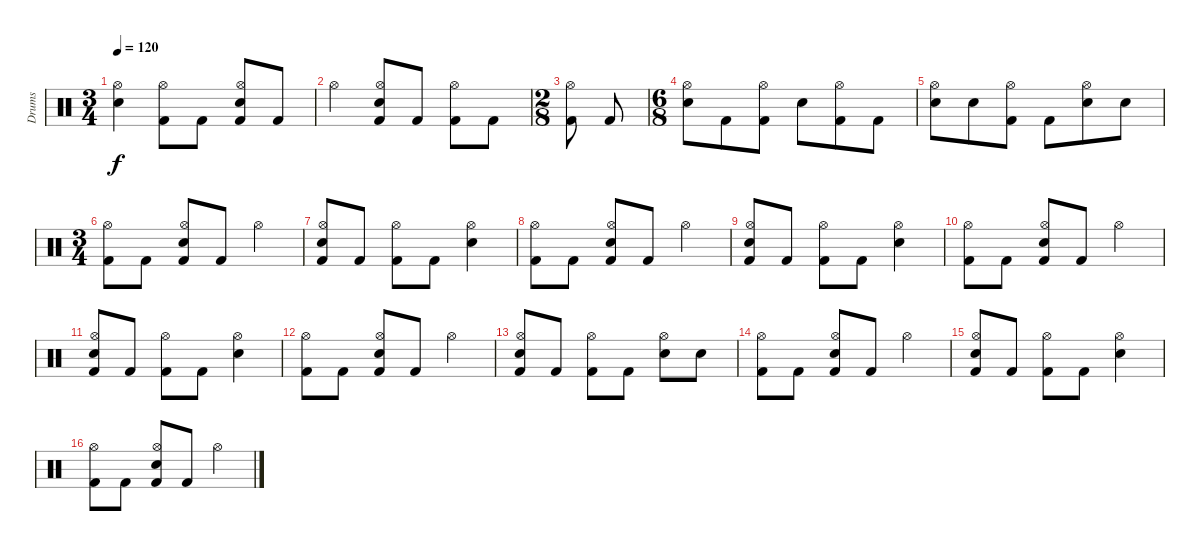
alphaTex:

\track ("Drums" "Drums") {instrument percussion}
\staff {score}
\articulation defaults
\ts (3 4)
\tempo 120
\clef neutral
\ks c
("Electric Snare (hit)" "Hi-Hat (open)").4{dy f} ("Hi-Hat (open)" "Kick (hit) 2").8 "Kick (hit) 2".8 ("Electric Snare (hit)" "Hi-Hat (open)" "Kick (hit) 2").8 "Kick (hit) 2".8 |
"Hi-Hat (open)".4 ("Electric Snare (hit)" "Hi-Hat (open)" "Kick (hit) 2").8 "Kick (hit) 2".8 ("Hi-Hat (open)" "Kick (hit) 2").8 "Kick (hit) 2".8 |
\ts (2 8)
("Hi-Hat (open)" "Kick (hit) 2").8 "Kick (hit) 2".8 |
\ts (6 8)
("Electric Snare (hit)" "Hi-Hat (open)").8 "Kick (hit) 2".8 ("Hi-Hat (open)" "Kick (hit) 2").8 "Electric Snare (hit)".8 ("Hi-Hat (open)" "Kick (hit) 2").8 "Kick (hit) 2".8 |
("Electric Snare (hit)" "Hi-Hat (open)").8 "Electric Snare (hit)".8 ("Hi-Hat (open)" "Kick (hit) 2").8 "Kick (hit) 2".8 ("Electric Snare (hit)" "Hi-Hat (open)").8 "Electric Snare (hit)".8 |
\ts (3 4)
("Hi-Hat (open)" "Kick (hit) 2").8 "Kick (hit) 2".8 ("Electric Snare (hit)" "Hi-Hat (open)" "Kick (hit) 2").8 "Kick (hit) 2".8 "Hi-Hat (open)".4 |
("Electric Snare (hit)" "Hi-Hat (open)" "Kick (hit) 2").8 "Kick (hit) 2".8 ("Hi-Hat (open)" "Kick (hit) 2").8 "Kick (hit) 2".8 ("Electric Snare (hit)" "Hi-Hat (open)").4 |
("Hi-Hat (open)" "Kick (hit) 2").8 "Kick (hit) 2".8 ("Electric Snare (hit)" "Hi-Hat (open)" "Kick (hit) 2").8 "Kick (hit) 2".8 "Hi-Hat (open)".4 |
("Electric Snare (hit)" "Hi-Hat (open)" "Kick (hit) 2").8 "Kick (hit) 2".8 ("Hi-Hat (open)" "Kick (hit) 2").8 "Kick (hit) 2".8 ("Electric Snare (hit)" "Hi-Hat (open)").4 |
("Hi-Hat (open)" "Kick (hit) 2").8 "Kick (hit) 2".8 ("Electric Snare (hit)" "Hi-Hat (open)" "Kick (hit) 2").8 "Kick (hit) 2".8 "Hi-Hat (open)".4 |
("Electric Snare (hit)" "Hi-Hat (open)" "Kick (hit) 2").8 "Kick (hit) 2".8 ("Hi-Hat (open)" "Kick (hit) 2").8 "Kick (hit) 2".8 ("Electric Snare (hit)" "Hi-Hat (open)").4 |
("Hi-Hat (open)" "Kick (hit) 2").8 "Kick (hit) 2".8 ("Electric Snare (hit)" "Hi-Hat (open)" "Kick (hit) 2").8 "Kick (hit) 2".8 "Hi-Hat (open)".4 |
("Electric Snare (hit)" "Hi-Hat (open)" "Kick (hit) 2").8 "Kick (hit) 2".8 ("Hi-Hat (open)" "Kick (hit) 2").8 "Kick (hit) 2".8 ("Electric Snare (hit)" "Hi-Hat (open)").8 "Electric Snare (hit)".8 |
("Hi-Hat (open)" "Kick (hit) 2").8 "Kick (hit) 2".8 ("Electric Snare (hit)" "Hi-Hat (open)" "Kick (hit) 2").8 "Kick (hit) 2".8 "Hi-Hat (open)".4 |
("Electric Snare (hit)" "Hi-Hat (open)" "Kick (hit) 2").8 "Kick (hit) 2".8 ("Hi-Hat (open)" "Kick (hit) 2").8 "Kick (hit) 2".8 ("Electric Snare (hit)" "Hi-Hat (open)").4 |
("Hi-Hat (open)" "Kick (hit) 2").8 "Kick (hit) 2".8 ("Electric Snare (hit)" "Hi-Hat (open)" "Kick (hit) 2").8 "Kick (hit) 2".8 "Hi-Hat (open)".4
